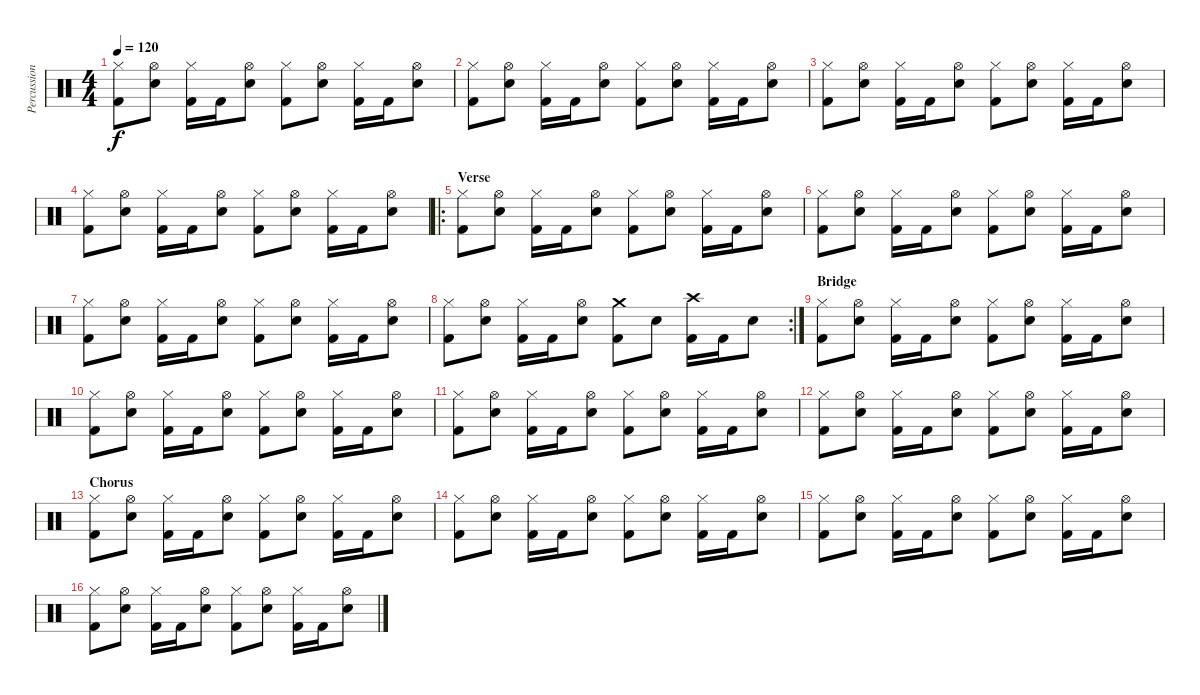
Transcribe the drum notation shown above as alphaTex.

\track ("Percussion" "Percussion") {instrument percussion}
\staff {score}
\articulation defaults
\ts (4 4)
\tempo 120
\clef neutral
\ks c
("Hi-Hat (closed)" "Kick (hit) 2").8{dy f} ("Hi-Hat (open)" "Snare (hit) 2").8 ("Hi-Hat (closed)" "Kick (hit) 2").16 "Kick (hit) 2".16 ("Hi-Hat (open)" "Snare (hit) 2").8 ("Hi-Hat (closed)" "Kick (hit) 2").8 ("Hi-Hat (open)" "Snare (hit) 2").8 ("Hi-Hat (closed)" "Kick (hit) 2").16 "Kick (hit) 2".16 ("Hi-Hat (open)" "Snare (hit) 2").8 |
("Hi-Hat (closed)" "Kick (hit) 2").8 ("Hi-Hat (open)" "Snare (hit) 2").8 ("Hi-Hat (closed)" "Kick (hit) 2").16 "Kick (hit) 2".16 ("Hi-Hat (open)" "Snare (hit) 2").8 ("Hi-Hat (closed)" "Kick (hit) 2").8 ("Hi-Hat (open)" "Snare (hit) 2").8 ("Hi-Hat (closed)" "Kick (hit) 2").16 "Kick (hit) 2".16 ("Hi-Hat (open)" "Snare (hit) 2").8 |
("Hi-Hat (closed)" "Kick (hit) 2").8 ("Hi-Hat (open)" "Snare (hit) 2").8 ("Hi-Hat (closed)" "Kick (hit) 2").16 "Kick (hit) 2".16 ("Hi-Hat (open)" "Snare (hit) 2").8 ("Hi-Hat (closed)" "Kick (hit) 2").8 ("Hi-Hat (open)" "Snare (hit) 2").8 ("Hi-Hat (closed)" "Kick (hit) 2").16 "Kick (hit) 2".16 ("Hi-Hat (open)" "Snare (hit) 2").8 |
("Hi-Hat (closed)" "Kick (hit) 2").8 ("Hi-Hat (open)" "Snare (hit) 2").8 ("Hi-Hat (closed)" "Kick (hit) 2").16 "Kick (hit) 2".16 ("Hi-Hat (open)" "Snare (hit) 2").8 ("Hi-Hat (closed)" "Kick (hit) 2").8 ("Hi-Hat (open)" "Snare (hit) 2").8 ("Hi-Hat (closed)" "Kick (hit) 2").16 "Kick (hit) 2".16 ("Hi-Hat (open)" "Snare (hit) 2").8 |
\ro
\section ("" "Verse")
("Hi-Hat (closed)" "Kick (hit) 2").8 ("Hi-Hat (open)" "Snare (hit) 2").8 ("Hi-Hat (closed)" "Kick (hit) 2").16 "Kick (hit) 2".16 ("Hi-Hat (open)" "Snare (hit) 2").8 ("Hi-Hat (closed)" "Kick (hit) 2").8 ("Hi-Hat (open)" "Snare (hit) 2").8 ("Hi-Hat (closed)" "Kick (hit) 2").16 "Kick (hit) 2".16 ("Hi-Hat (open)" "Snare (hit) 2").8 |
("Hi-Hat (closed)" "Kick (hit) 2").8 ("Hi-Hat (open)" "Snare (hit) 2").8 ("Hi-Hat (closed)" "Kick (hit) 2").16 "Kick (hit) 2".16 ("Hi-Hat (open)" "Snare (hit) 2").8 ("Hi-Hat (closed)" "Kick (hit) 2").8 ("Hi-Hat (open)" "Snare (hit) 2").8 ("Hi-Hat (closed)" "Kick (hit) 2").16 "Kick (hit) 2".16 ("Hi-Hat (open)" "Snare (hit) 2").8 |
("Hi-Hat (closed)" "Kick (hit) 2").8 ("Hi-Hat (open)" "Snare (hit) 2").8 ("Hi-Hat (closed)" "Kick (hit) 2").16 "Kick (hit) 2".16 ("Hi-Hat (open)" "Snare (hit) 2").8 ("Hi-Hat (closed)" "Kick (hit) 2").8 ("Hi-Hat (open)" "Snare (hit) 2").8 ("Hi-Hat (closed)" "Kick (hit) 2").16 "Kick (hit) 2".16 ("Hi-Hat (open)" "Snare (hit) 2").8 |
\rc 2
("Hi-Hat (closed)" "Kick (hit) 2").8 ("Hi-Hat (open)" "Snare (hit) 2").8 ("Hi-Hat (closed)" "Kick (hit) 2").16 "Kick (hit) 2".16 ("Hi-Hat (open)" "Snare (hit) 2").8 ("Crash medium (hit)" "Kick (hit) 2").8 "Snare (hit) 2".8 ("Crash high (hit)" "Kick (hit) 2").16 "Kick (hit) 2".16 "Snare (hit) 2".8 |
\section ("" "Bridge")
("Hi-Hat (closed)" "Kick (hit) 2").8 ("Hi-Hat (open)" "Snare (hit) 2").8 ("Hi-Hat (closed)" "Kick (hit) 2").16 "Kick (hit) 2".16 ("Hi-Hat (open)" "Snare (hit) 2").8 ("Hi-Hat (closed)" "Kick (hit) 2").8 ("Hi-Hat (open)" "Snare (hit) 2").8 ("Hi-Hat (closed)" "Kick (hit) 2").16 "Kick (hit) 2".16 ("Hi-Hat (open)" "Snare (hit) 2").8 |
("Hi-Hat (closed)" "Kick (hit) 2").8 ("Hi-Hat (open)" "Snare (hit) 2").8 ("Hi-Hat (closed)" "Kick (hit) 2").16 "Kick (hit) 2".16 ("Hi-Hat (open)" "Snare (hit) 2").8 ("Hi-Hat (closed)" "Kick (hit) 2").8 ("Hi-Hat (open)" "Snare (hit) 2").8 ("Hi-Hat (closed)" "Kick (hit) 2").16 "Kick (hit) 2".16 ("Hi-Hat (open)" "Snare (hit) 2").8 |
("Hi-Hat (closed)" "Kick (hit) 2").8 ("Hi-Hat (open)" "Snare (hit) 2").8 ("Hi-Hat (closed)" "Kick (hit) 2").16 "Kick (hit) 2".16 ("Hi-Hat (open)" "Snare (hit) 2").8 ("Hi-Hat (closed)" "Kick (hit) 2").8 ("Hi-Hat (open)" "Snare (hit) 2").8 ("Hi-Hat (closed)" "Kick (hit) 2").16 "Kick (hit) 2".16 ("Hi-Hat (open)" "Snare (hit) 2").8 |
("Hi-Hat (closed)" "Kick (hit) 2").8 ("Hi-Hat (open)" "Snare (hit) 2").8 ("Hi-Hat (closed)" "Kick (hit) 2").16 "Kick (hit) 2".16 ("Hi-Hat (open)" "Snare (hit) 2").8 ("Hi-Hat (closed)" "Kick (hit) 2").8 ("Hi-Hat (open)" "Snare (hit) 2").8 ("Hi-Hat (closed)" "Kick (hit) 2").16 "Kick (hit) 2".16 ("Hi-Hat (open)" "Snare (hit) 2").8 |
\section ("" "Chorus")
("Hi-Hat (closed)" "Kick (hit) 2").8 ("Hi-Hat (open)" "Snare (hit) 2").8 ("Hi-Hat (closed)" "Kick (hit) 2").16 "Kick (hit) 2".16 ("Hi-Hat (open)" "Snare (hit) 2").8 ("Hi-Hat (closed)" "Kick (hit) 2").8 ("Hi-Hat (open)" "Snare (hit) 2").8 ("Hi-Hat (closed)" "Kick (hit) 2").16 "Kick (hit) 2".16 ("Hi-Hat (open)" "Snare (hit) 2").8 |
("Hi-Hat (closed)" "Kick (hit) 2").8 ("Hi-Hat (open)" "Snare (hit) 2").8 ("Hi-Hat (closed)" "Kick (hit) 2").16 "Kick (hit) 2".16 ("Hi-Hat (open)" "Snare (hit) 2").8 ("Hi-Hat (closed)" "Kick (hit) 2").8 ("Hi-Hat (open)" "Snare (hit) 2").8 ("Hi-Hat (closed)" "Kick (hit) 2").16 "Kick (hit) 2".16 ("Hi-Hat (open)" "Snare (hit) 2").8 |
("Hi-Hat (closed)" "Kick (hit) 2").8 ("Hi-Hat (open)" "Snare (hit) 2").8 ("Hi-Hat (closed)" "Kick (hit) 2").16 "Kick (hit) 2".16 ("Hi-Hat (open)" "Snare (hit) 2").8 ("Hi-Hat (closed)" "Kick (hit) 2").8 ("Hi-Hat (open)" "Snare (hit) 2").8 ("Hi-Hat (closed)" "Kick (hit) 2").16 "Kick (hit) 2".16 ("Hi-Hat (open)" "Snare (hit) 2").8 |
("Hi-Hat (closed)" "Kick (hit) 2").8 ("Hi-Hat (open)" "Snare (hit) 2").8 ("Hi-Hat (closed)" "Kick (hit) 2").16 "Kick (hit) 2".16 ("Hi-Hat (open)" "Snare (hit) 2").8 ("Hi-Hat (closed)" "Kick (hit) 2").8 ("Hi-Hat (open)" "Snare (hit) 2").8 ("Hi-Hat (closed)" "Kick (hit) 2").16 "Kick (hit) 2".16 ("Hi-Hat (open)" "Snare (hit) 2").8
